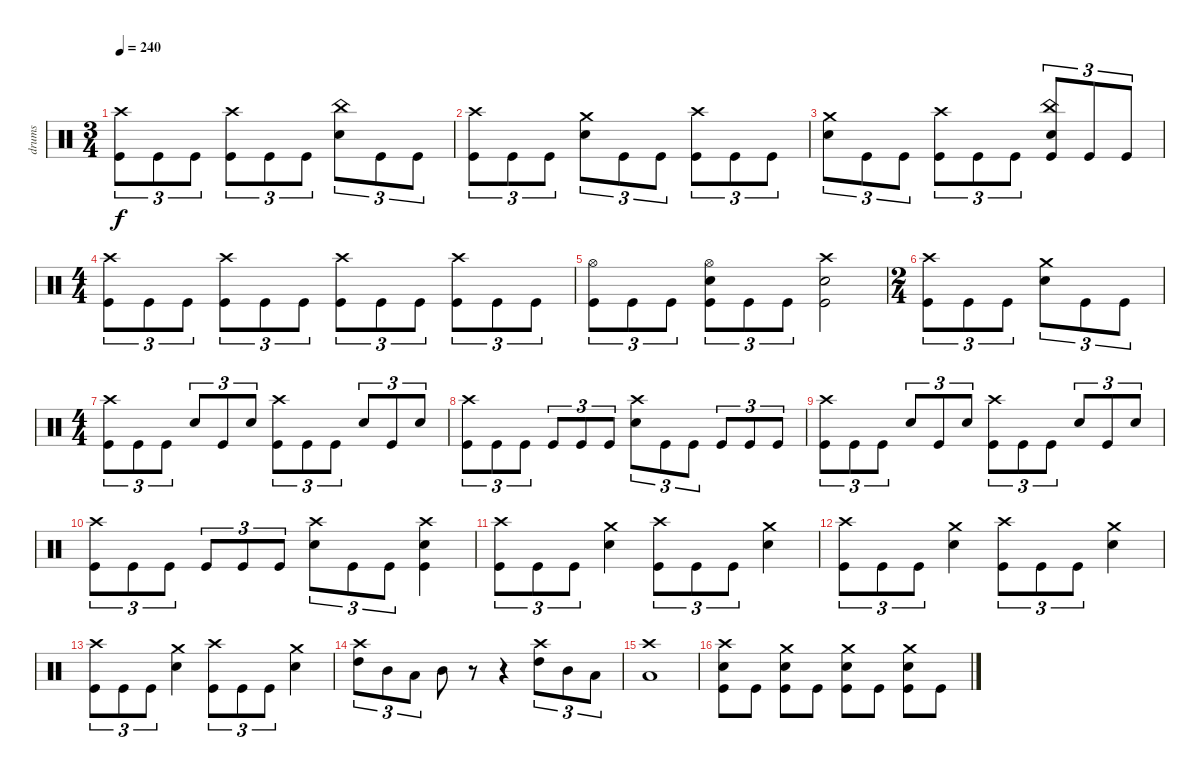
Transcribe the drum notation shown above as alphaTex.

\track ("drums" "drums") {instrument percussion}
\staff {score}
\articulation defaults
\ts (3 4)
\tempo 240
\clef neutral
\ks c
("Crash high (hit)" "Kick (hit)").8{tu (3 2) dy f} "Kick (hit)".8{tu (3 2)} "Kick (hit)".8{tu (3 2)} ("Crash high (hit)" "Kick (hit)").8{tu (3 2)} "Kick (hit)".8{tu (3 2)} "Kick (hit)".8{tu (3 2)} ("China (hit)" "Electric Snare (hit)").8{tu (3 2)} "Kick (hit)".8{tu (3 2)} "Kick (hit)".8{tu (3 2)} |
("Crash high (hit)" "Kick (hit)").8{tu (3 2)} "Kick (hit)".8{tu (3 2)} "Kick (hit)".8{tu (3 2)} ("Crash medium (hit)" "Electric Snare (hit)").8{tu (3 2)} "Kick (hit)".8{tu (3 2)} "Kick (hit)".8{tu (3 2)} ("Crash high (hit)" "Kick (hit)").8{tu (3 2)} "Kick (hit)".8{tu (3 2)} "Kick (hit)".8{tu (3 2)} |
("Crash medium (hit)" "Electric Snare (hit)").8{tu (3 2)} "Kick (hit)".8{tu (3 2)} "Kick (hit)".8{tu (3 2)} ("Crash high (hit)" "Kick (hit)").8{tu (3 2)} "Kick (hit)".8{tu (3 2)} "Kick (hit)".8{tu (3 2)} ("China (hit)" "Electric Snare (hit)" "Kick (hit)").8{tu (3 2)} "Kick (hit)".8{tu (3 2)} "Kick (hit)".8{tu (3 2)} |
\ts (4 4)
("Crash high (hit)" "Kick (hit)").8{tu (3 2)} "Kick (hit)".8{tu (3 2)} "Kick (hit)".8{tu (3 2)} ("Crash high (hit)" "Kick (hit)").8{tu (3 2)} "Kick (hit)".8{tu (3 2)} "Kick (hit)".8{tu (3 2)} ("Crash high (hit)" "Kick (hit)").8{tu (3 2)} "Kick (hit)".8{tu (3 2)} "Kick (hit)".8{tu (3 2)} ("Crash high (hit)" "Kick (hit)").8{tu (3 2)} "Kick (hit)".8{tu (3 2)} "Kick (hit)".8{tu (3 2)} |
("Hi-Hat (open)" "Kick (hit)").8{tu (3 2)} "Kick (hit)".8{tu (3 2)} "Kick (hit)".8{tu (3 2)} ("Hi-Hat (open)" "Electric Snare (hit)" "Kick (hit)").8{tu (3 2)} "Kick (hit)".8{tu (3 2)} "Kick (hit)".8{tu (3 2)} ("Crash high (hit)" "Electric Snare (hit)" "Kick (hit)").2 |
\ts (2 4)
("Crash high (hit)" "Kick (hit)").8{tu (3 2)} "Kick (hit)".8{tu (3 2)} "Kick (hit)".8{tu (3 2)} ("Crash medium (hit)" "Electric Snare (hit)").8{tu (3 2)} "Kick (hit)".8{tu (3 2)} "Kick (hit)".8{tu (3 2)} |
\ts (4 4)
("Crash high (hit)" "Kick (hit)").8{tu (3 2)} "Kick (hit)".8{tu (3 2)} "Kick (hit)".8{tu (3 2)} "Electric Snare (hit)".8{tu (3 2)} "Kick (hit)".8{tu (3 2)} "Electric Snare (hit)".8{tu (3 2)} ("Crash high (hit)" "Kick (hit)").8{tu (3 2)} "Kick (hit)".8{tu (3 2)} "Kick (hit)".8{tu (3 2)} "Electric Snare (hit)".8{tu (3 2)} "Kick (hit)".8{tu (3 2)} "Electric Snare (hit)".8{tu (3 2)} |
("Crash high (hit)" "Kick (hit)").8{tu (3 2)} "Kick (hit)".8{tu (3 2)} "Kick (hit)".8{tu (3 2)} "Kick (hit)".8{tu (3 2)} "Kick (hit)".8{tu (3 2)} "Kick (hit)".8{tu (3 2)} ("Crash high (hit)" "Electric Snare (hit)").8{tu (3 2)} "Kick (hit)".8{tu (3 2)} "Kick (hit)".8{tu (3 2)} "Kick (hit)".8{tu (3 2)} "Kick (hit)".8{tu (3 2)} "Kick (hit)".8{tu (3 2)} |
("Crash high (hit)" "Kick (hit)").8{tu (3 2)} "Kick (hit)".8{tu (3 2)} "Kick (hit)".8{tu (3 2)} "Electric Snare (hit)".8{tu (3 2)} "Kick (hit)".8{tu (3 2)} "Electric Snare (hit)".8{tu (3 2)} ("Crash high (hit)" "Kick (hit)").8{tu (3 2)} "Kick (hit)".8{tu (3 2)} "Kick (hit)".8{tu (3 2)} "Electric Snare (hit)".8{tu (3 2)} "Kick (hit)".8{tu (3 2)} "Electric Snare (hit)".8{tu (3 2)} |
("Crash high (hit)" "Kick (hit)").8{tu (3 2)} "Kick (hit)".8{tu (3 2)} "Kick (hit)".8{tu (3 2)} "Kick (hit)".8{tu (3 2)} "Kick (hit)".8{tu (3 2)} "Kick (hit)".8{tu (3 2)} ("Crash high (hit)" "Electric Snare (hit)").8{tu (3 2)} "Kick (hit)".8{tu (3 2)} "Kick (hit)".8{tu (3 2)} ("Crash high (hit)" "Electric Snare (hit)" "Kick (hit)").4 |
("Crash high (hit)" "Kick (hit)").8{tu (3 2)} "Kick (hit)".8{tu (3 2)} "Kick (hit)".8{tu (3 2)} ("Crash medium (hit)" "Electric Snare (hit)").4 ("Crash high (hit)" "Kick (hit)").8{tu (3 2)} "Kick (hit)".8{tu (3 2)} "Kick (hit)".8{tu (3 2)} ("Crash medium (hit)" "Electric Snare (hit)").4 |
("Crash high (hit)" "Kick (hit)").8{tu (3 2)} "Kick (hit)".8{tu (3 2)} "Kick (hit)".8{tu (3 2)} ("Crash medium (hit)" "Electric Snare (hit)").4 ("Crash high (hit)" "Kick (hit)").8{tu (3 2)} "Kick (hit)".8{tu (3 2)} "Kick (hit)".8{tu (3 2)} ("Crash medium (hit)" "Electric Snare (hit)").4 |
("Crash high (hit)" "Kick (hit)").8{tu (3 2)} "Kick (hit)".8{tu (3 2)} "Kick (hit)".8{tu (3 2)} ("Crash medium (hit)" "Electric Snare (hit)").4 ("Crash high (hit)" "Kick (hit)").8{tu (3 2)} "Kick (hit)".8{tu (3 2)} "Kick (hit)".8{tu (3 2)} ("Crash medium (hit)" "Electric Snare (hit)").4 |
("Crash high (hit)" "High Tom (hit)").8{tu (3 2)} "Mid Tom (hit)".8{tu (3 2)} "Low Tom (hit)".8{tu (3 2)} "Mid Tom (hit)".8 r.8 r.4 ("Crash high (hit)" "High Tom (hit)").8{tu (3 2)} "Mid Tom (hit)".8{tu (3 2)} "Low Tom (hit)".8{tu (3 2)} |
("Crash high (hit)" "Low Tom (hit)").1 |
("Crash high (hit)" "Electric Snare (hit)" "Kick (hit)").8 "Kick (hit)".8 ("Crash medium (hit)" "Electric Snare (hit)" "Kick (hit)").8 "Kick (hit)".8 ("Crash medium (hit)" "Electric Snare (hit)" "Kick (hit)").8 "Kick (hit)".8 ("Crash medium (hit)" "Electric Snare (hit)" "Kick (hit)").8 "Kick (hit)".8
